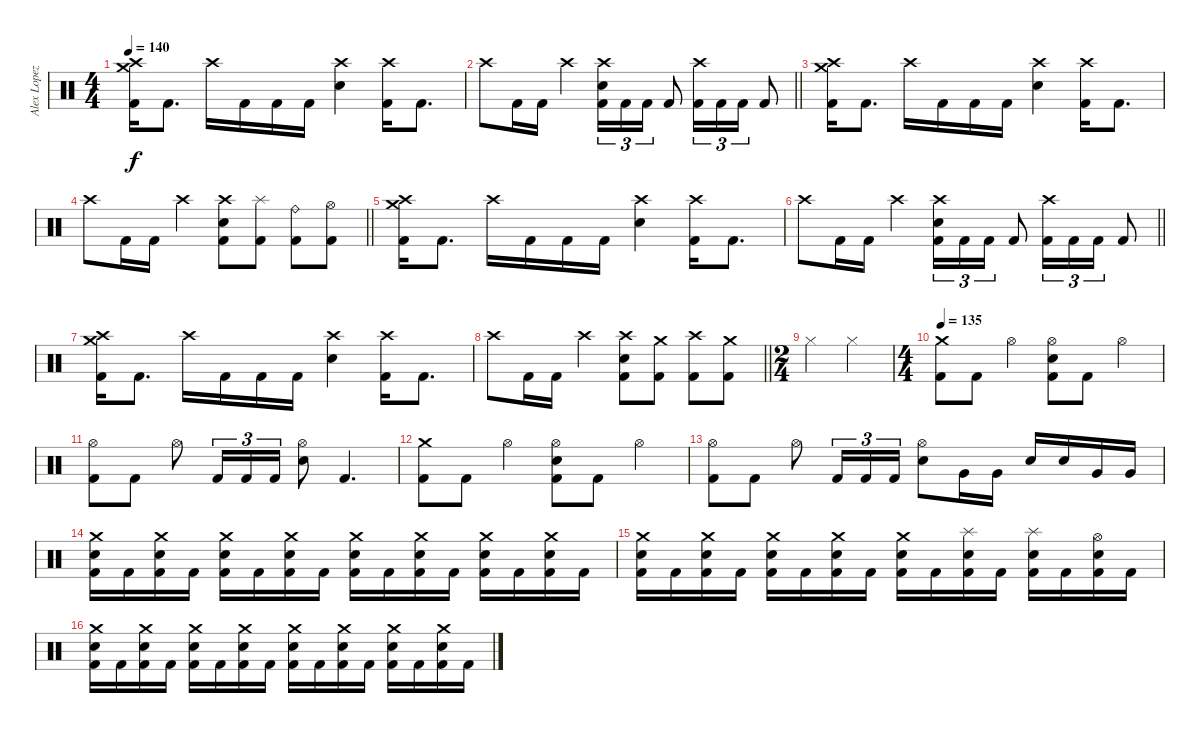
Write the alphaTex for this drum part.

\track ("Alex Lopez" "Alex Lopez") {instrument percussion}
\staff {score}
\articulation defaults
\ts (4 4)
\tempo 140
\clef neutral
\ks c
("Crash medium (hit)" "Crash high (hit)" "Kick (hit) 2").16{dy f} "Kick (hit) 2".8{d} "Crash high (hit)".16 "Kick (hit) 2".16 "Kick (hit) 2".16 "Kick (hit) 2".16 ("Crash high (hit)" "Electric Snare (hit)").4 ("Crash high (hit)" "Kick (hit) 2").16 "Kick (hit) 2".8{d} |
\barLineRight lightlight "Crash high (hit)".8 "Kick (hit) 2".16 "Kick (hit) 2".16 "Crash high (hit)".4
("Crash high (hit)" "Electric Snare (hit)" "Kick (hit) 2").16{tu (3 2)} "Kick (hit) 2".16{tu (3 2)} "Kick (hit) 2".16{tu (3 2)} "Kick (hit) 2".8 ("Crash high (hit)" "Kick (hit) 2").16{tu (3 2)} "Kick (hit) 2".16{tu (3 2)} "Kick (hit) 2".16{tu (3 2)} "Kick (hit) 2".8 |
("Crash medium (hit)" "Crash high (hit)" "Kick (hit) 2").16 "Kick (hit) 2".8{d} "Crash high (hit)".16 "Kick (hit) 2".16 "Kick (hit) 2".16 "Kick (hit) 2".16 ("Crash high (hit)" "Electric Snare (hit)").4 ("Crash high (hit)" "Kick (hit) 2").16 "Kick (hit) 2".8{d} |
\barLineRight lightlight "Crash high (hit)".8 "Kick (hit) 2".16 "Kick (hit) 2".16 "Crash high (hit)".4
("Crash high (hit)" "Electric Snare (hit)" "Kick (hit) 2").8 ("Splash (hit)" "Kick (hit) 2").8 ("Ride (bell)" "Kick (hit) 2").8 ("Hi-Hat (open)" "Kick (hit) 2").8 |
("Crash medium (hit)" "Crash high (hit)" "Kick (hit) 2").16 "Kick (hit) 2".8{d} "Crash high (hit)".16 "Kick (hit) 2".16 "Kick (hit) 2".16 "Kick (hit) 2".16 ("Crash high (hit)" "Electric Snare (hit)").4 ("Crash high (hit)" "Kick (hit) 2").16 "Kick (hit) 2".8{d} |
\barLineRight lightlight "Crash high (hit)".8 "Kick (hit) 2".16 "Kick (hit) 2".16 "Crash high (hit)".4
("Crash high (hit)" "Electric Snare (hit)" "Kick (hit) 2").16{tu (3 2)} "Kick (hit) 2".16{tu (3 2)} "Kick (hit) 2".16{tu (3 2)} "Kick (hit) 2".8 ("Crash high (hit)" "Kick (hit) 2").16{tu (3 2)} "Kick (hit) 2".16{tu (3 2)} "Kick (hit) 2".16{tu (3 2)} "Kick (hit) 2".8 |
("Crash medium (hit)" "Crash high (hit)" "Kick (hit) 2").16 "Kick (hit) 2".8{d} "Crash high (hit)".16 "Kick (hit) 2".16 "Kick (hit) 2".16 "Kick (hit) 2".16 ("Crash high (hit)" "Electric Snare (hit)").4 ("Crash high (hit)" "Kick (hit) 2").16 "Kick (hit) 2".8{d} |
\barLineRight lightlight "Crash high (hit)".8 "Kick (hit) 2".16 "Kick (hit) 2".16 "Crash high (hit)".4
("Crash high (hit)" "Electric Snare (hit)" "Kick (hit) 2").8 ("Crash medium (hit)" "Kick (hit) 2").8 ("Crash high (hit)" "Kick (hit) 2").8 ("Crash medium (hit)" "Kick (hit) 2").8 |
\ts (2 4)
"Hi-Hat (closed)".4 "Hi-Hat (closed)".4 |
\ts (4 4)
\tempo 135
("Crash medium (hit)" "Kick (hit) 2").8 "Kick (hit) 2".8 "Hi-Hat (open)".4 ("Hi-Hat (open)" "Electric Snare (hit)" "Kick (hit) 2").8 "Kick (hit) 2".8 "Hi-Hat (open)".4 |
("Hi-Hat (open)" "Kick (hit) 2").8 "Kick (hit) 2".8 "Hi-Hat (open)".8 "Kick (hit) 2".16{tu (3 2)} "Kick (hit) 2".16{tu (3 2)} "Kick (hit) 2".16{tu (3 2)} ("Hi-Hat (open)" "Electric Snare (hit)").8 "Kick (hit) 2".4{d} |
("Crash medium (hit)" "Kick (hit) 2").8 "Kick (hit) 2".8 "Hi-Hat (open)".4 ("Hi-Hat (open)" "Electric Snare (hit)" "Kick (hit) 2").8 "Kick (hit) 2".8 "Hi-Hat (open)".4 |
("Hi-Hat (open)" "Kick (hit) 2").8 "Kick (hit) 2".8 "Hi-Hat (open)".8 "Kick (hit) 2".16{tu (3 2)} "Kick (hit) 2".16{tu (3 2)} "Kick (hit) 2".16{tu (3 2)} ("Hi-Hat (open)" "Electric Snare (hit)").8 "Very Low Tom (hit)".16 "Very Low Tom (hit)".16 "Electric Snare (hit)".16 "Electric Snare (hit)".16 "Very Low Tom (hit)".16 "Very Low Tom (hit)".16 |
("Crash medium (hit)" "Electric Snare (hit)" "Kick (hit) 2").16 "Kick (hit) 2".16 ("Crash medium (hit)" "Electric Snare (hit)" "Kick (hit) 2").16 "Kick (hit) 2".16 ("Crash medium (hit)" "Electric Snare (hit)" "Kick (hit) 2").16 "Kick (hit) 2".16 ("Crash medium (hit)" "Electric Snare (hit)" "Kick (hit) 2").16 "Kick (hit) 2".16 ("Crash medium (hit)" "Electric Snare (hit)" "Kick (hit) 2").16 "Kick (hit) 2".16 ("Crash medium (hit)" "Electric Snare (hit)" "Kick (hit) 2").16 "Kick (hit) 2".16 ("Crash medium (hit)" "Electric Snare (hit)" "Kick (hit) 2").16 "Kick (hit) 2".16 ("Crash medium (hit)" "Electric Snare (hit)" "Kick (hit) 2").16 "Kick (hit) 2".16 |
("Crash medium (hit)" "Electric Snare (hit)" "Kick (hit) 2").16 "Kick (hit) 2".16 ("Crash medium (hit)" "Electric Snare (hit)" "Kick (hit) 2").16 "Kick (hit) 2".16 ("Crash medium (hit)" "Electric Snare (hit)" "Kick (hit) 2").16 "Kick (hit) 2".16 ("Crash medium (hit)" "Electric Snare (hit)" "Kick (hit) 2").16 "Kick (hit) 2".16 ("Crash medium (hit)" "Electric Snare (hit)" "Kick (hit) 2").16 "Kick (hit) 2".16 ("Splash (hit)" "Electric Snare (hit)" "Kick (hit) 2").16 "Kick (hit) 2".16 ("Splash (hit)" "Electric Snare (hit)" "Kick (hit) 2").16 "Kick (hit) 2".16 ("Hi-Hat (open)" "Electric Snare (hit)" "Kick (hit) 2").16 "Kick (hit) 2".16 |
("Crash medium (hit)" "Electric Snare (hit)" "Kick (hit) 2").16 "Kick (hit) 2".16 ("Crash medium (hit)" "Electric Snare (hit)" "Kick (hit) 2").16 "Kick (hit) 2".16 ("Crash medium (hit)" "Electric Snare (hit)" "Kick (hit) 2").16 "Kick (hit) 2".16 ("Crash medium (hit)" "Electric Snare (hit)" "Kick (hit) 2").16 "Kick (hit) 2".16 ("Crash medium (hit)" "Electric Snare (hit)" "Kick (hit) 2").16 "Kick (hit) 2".16 ("Crash medium (hit)" "Electric Snare (hit)" "Kick (hit) 2").16 "Kick (hit) 2".16 ("Crash medium (hit)" "Electric Snare (hit)" "Kick (hit) 2").16 "Kick (hit) 2".16 ("Crash medium (hit)" "Electric Snare (hit)" "Kick (hit) 2").16 "Kick (hit) 2".16
